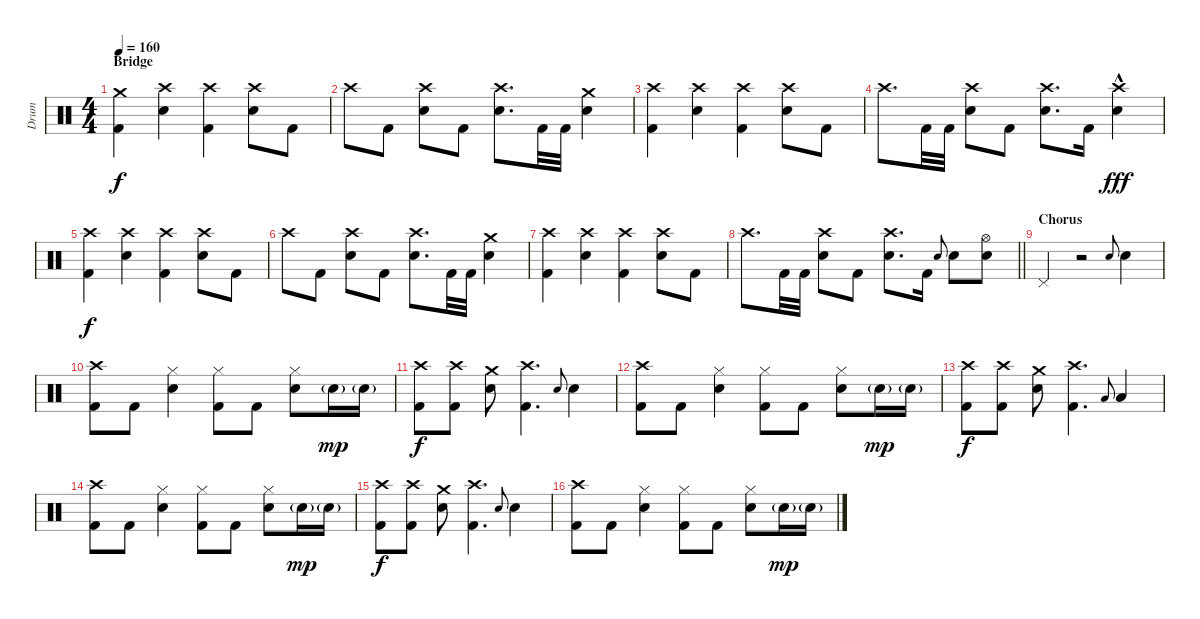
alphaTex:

\track ("Drum" "Drum") {instrument percussion}
\staff {score}
\articulation defaults
\ts (4 4)
\section ("" "Bridge")
\tempo 160
\clef neutral
\ks c
("Crash medium (hit)" "Kick (hit) 2").4{dy f} ("Crash high (hit)" "Electric Snare (hit)").4 ("Crash high (hit)" "Kick (hit) 2").4 ("Crash high (hit)" "Electric Snare (hit)").8 "Kick (hit) 2".8 |
"Crash high (hit)".8 "Kick (hit) 2".8 ("Crash high (hit)" "Electric Snare (hit)").8 "Kick (hit) 2".8 ("Crash high (hit)" "Electric Snare (hit)").8{d} "Kick (hit) 2".32 "Kick (hit) 2".32 ("Crash medium (hit)" "Electric Snare (hit)").4 |
("Crash high (hit)" "Kick (hit) 2").4 ("Crash high (hit)" "Electric Snare (hit)").4 ("Crash high (hit)" "Kick (hit) 2").4 ("Crash high (hit)" "Electric Snare (hit)").8 "Kick (hit) 2".8 |
"Crash high (hit)".8{d} "Kick (hit) 2".32 "Kick (hit) 2".32 ("Crash high (hit)" "Electric Snare (hit)").8 "Kick (hit) 2".8 ("Crash high (hit)" "Electric Snare (hit)").8{d} "Kick (hit) 2".16 ("Crash high (hit)"{hac} "Electric Snare (hit)").4{dy fff} |
("Crash high (hit)" "Kick (hit) 2").4{dy f} ("Crash high (hit)" "Electric Snare (hit)").4 ("Crash high (hit)" "Kick (hit) 2").4 ("Crash high (hit)" "Electric Snare (hit)").8 "Kick (hit) 2".8 |
"Crash high (hit)".8 "Kick (hit) 2".8 ("Crash high (hit)" "Electric Snare (hit)").8 "Kick (hit) 2".8 ("Crash high (hit)" "Electric Snare (hit)").8{d} "Kick (hit) 2".32 "Kick (hit) 2".32 ("Crash medium (hit)" "Electric Snare (hit)").4 |
("Crash high (hit)" "Kick (hit) 2").4 ("Crash high (hit)" "Electric Snare (hit)").4 ("Crash high (hit)" "Kick (hit) 2").4 ("Crash high (hit)" "Electric Snare (hit)").8 "Kick (hit) 2".8 |
\barLineRight lightlight "Crash high (hit)".8{d} "Kick (hit) 2".32 "Kick (hit) 2".32
("Crash high (hit)" "Electric Snare (hit)").8 "Kick (hit) 2".8 ("Crash high (hit)" "Electric Snare (hit)").8{d} "Kick (hit) 2".16 "Electric Snare (hit)".8{gr onbeat} "Electric Snare (hit)".8 ("Hi-Hat (open)" "Electric Snare (hit)").8 |
\section ("" "Chorus")
"Pedal Hi-Hat (hit)".4 r.2 "Electric Snare (hit)".8{gr onbeat} "Electric Snare (hit)".4 |
("Crash high (hit)" "Kick (hit) 2").8 "Kick (hit) 2".8 ("Hi-Hat (closed)" "Electric Snare (hit)").4 ("Hi-Hat (closed)" "Kick (hit) 2").8 "Kick (hit) 2".8 ("Hi-Hat (closed)" "Electric Snare (hit)").8 "Electric Snare (hit)"{g}.16{dy mp} "Electric Snare (hit)"{g}.16 |
("Crash high (hit)" "Kick (hit) 2").8{dy f} ("Crash high (hit)" "Kick (hit) 2").8 ("Crash medium (hit)" "Electric Snare (hit)").8 ("Crash high (hit)" "Kick (hit) 2").4{d} "Electric Snare (hit)".8{gr onbeat} "Electric Snare (hit)".4 |
("Crash high (hit)" "Kick (hit) 2").8 "Kick (hit) 2".8 ("Hi-Hat (closed)" "Electric Snare (hit)").4 ("Hi-Hat (closed)" "Kick (hit) 2").8 "Kick (hit) 2".8 ("Hi-Hat (closed)" "Electric Snare (hit)").8 "Electric Snare (hit)"{g}.16{dy mp} "Electric Snare (hit)"{g}.16 |
("Crash high (hit)" "Kick (hit) 2").8{dy f} ("Crash high (hit)" "Kick (hit) 2").8 ("Crash medium (hit)" "Electric Snare (hit)").8 ("Crash high (hit)" "Kick (hit) 2").4{d} "Low Tom (hit)".8{gr onbeat} "Low Tom (hit)".4 |
("Crash high (hit)" "Kick (hit) 2").8 "Kick (hit) 2".8 ("Hi-Hat (closed)" "Electric Snare (hit)").4 ("Hi-Hat (closed)" "Kick (hit) 2").8 "Kick (hit) 2".8 ("Hi-Hat (closed)" "Electric Snare (hit)").8 "Electric Snare (hit)"{g}.16{dy mp} "Electric Snare (hit)"{g}.16 |
("Crash high (hit)" "Kick (hit) 2").8{dy f} ("Crash high (hit)" "Kick (hit) 2").8 ("Crash medium (hit)" "Electric Snare (hit)").8 ("Crash high (hit)" "Kick (hit) 2").4{d} "Electric Snare (hit)".8{gr onbeat} "Electric Snare (hit)".4 |
("Crash high (hit)" "Kick (hit) 2").8 "Kick (hit) 2".8 ("Hi-Hat (closed)" "Electric Snare (hit)").4 ("Hi-Hat (closed)" "Kick (hit) 2").8 "Kick (hit) 2".8 ("Hi-Hat (closed)" "Electric Snare (hit)").8 "Electric Snare (hit)"{g}.16{dy mp} "Electric Snare (hit)"{g}.16
